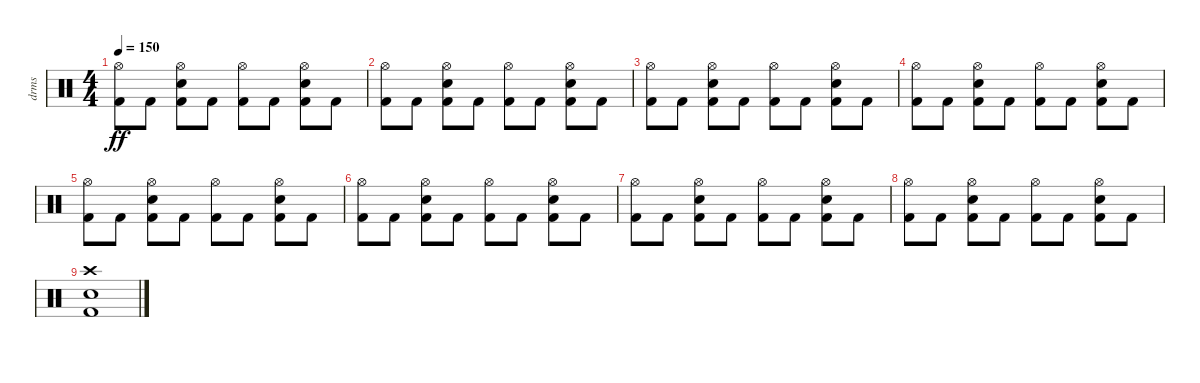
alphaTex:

\track ("drms" "drms") {instrument percussion}
\staff {score}
\articulation defaults
\ts (4 4)
\tempo 150
\clef neutral
\ks c
("Hi-Hat (open)" "Kick (hit) 2").8{dy ff} "Kick (hit) 2".8 ("Hi-Hat (open)" "Snare (hit) 2" "Kick (hit) 2").8 "Kick (hit) 2".8 ("Hi-Hat (open)" "Kick (hit) 2").8 "Kick (hit) 2".8 ("Hi-Hat (open)" "Snare (hit) 2" "Kick (hit) 2").8 "Kick (hit) 2".8 |
("Hi-Hat (open)" "Kick (hit) 2").8 "Kick (hit) 2".8 ("Hi-Hat (open)" "Snare (hit) 2" "Kick (hit) 2").8 "Kick (hit) 2".8 ("Hi-Hat (open)" "Kick (hit) 2").8 "Kick (hit) 2".8 ("Hi-Hat (open)" "Snare (hit) 2" "Kick (hit) 2").8 "Kick (hit) 2".8 |
("Hi-Hat (open)" "Kick (hit) 2").8 "Kick (hit) 2".8 ("Hi-Hat (open)" "Snare (hit) 2" "Kick (hit) 2").8 "Kick (hit) 2".8 ("Hi-Hat (open)" "Kick (hit) 2").8 "Kick (hit) 2".8 ("Hi-Hat (open)" "Snare (hit) 2" "Kick (hit) 2").8 "Kick (hit) 2".8 |
("Hi-Hat (open)" "Kick (hit) 2").8 "Kick (hit) 2".8 ("Hi-Hat (open)" "Snare (hit) 2" "Kick (hit) 2").8 "Kick (hit) 2".8 ("Hi-Hat (open)" "Kick (hit) 2").8 "Kick (hit) 2".8 ("Hi-Hat (open)" "Snare (hit) 2" "Kick (hit) 2").8 "Kick (hit) 2".8 |
("Hi-Hat (open)" "Kick (hit) 2").8 "Kick (hit) 2".8 ("Hi-Hat (open)" "Snare (hit) 2" "Kick (hit) 2").8 "Kick (hit) 2".8 ("Hi-Hat (open)" "Kick (hit) 2").8 "Kick (hit) 2".8 ("Hi-Hat (open)" "Snare (hit) 2" "Kick (hit) 2").8 "Kick (hit) 2".8 |
("Hi-Hat (open)" "Kick (hit) 2").8 "Kick (hit) 2".8 ("Hi-Hat (open)" "Snare (hit) 2" "Kick (hit) 2").8 "Kick (hit) 2".8 ("Hi-Hat (open)" "Kick (hit) 2").8 "Kick (hit) 2".8 ("Hi-Hat (open)" "Snare (hit) 2" "Kick (hit) 2").8 "Kick (hit) 2".8 |
("Hi-Hat (open)" "Kick (hit) 2").8 "Kick (hit) 2".8 ("Hi-Hat (open)" "Snare (hit) 2" "Kick (hit) 2").8 "Kick (hit) 2".8 ("Hi-Hat (open)" "Kick (hit) 2").8 "Kick (hit) 2".8 ("Hi-Hat (open)" "Snare (hit) 2" "Kick (hit) 2").8 "Kick (hit) 2".8 |
("Hi-Hat (open)" "Kick (hit) 2").8 "Kick (hit) 2".8 ("Hi-Hat (open)" "Snare (hit) 2" "Kick (hit) 2").8 "Kick (hit) 2".8 ("Hi-Hat (open)" "Kick (hit) 2").8 "Kick (hit) 2".8 ("Hi-Hat (open)" "Snare (hit) 2" "Kick (hit) 2").8 "Kick (hit) 2".8 |
("Crash high (hit)" "Snare (hit) 2" "Kick (hit) 2").1
